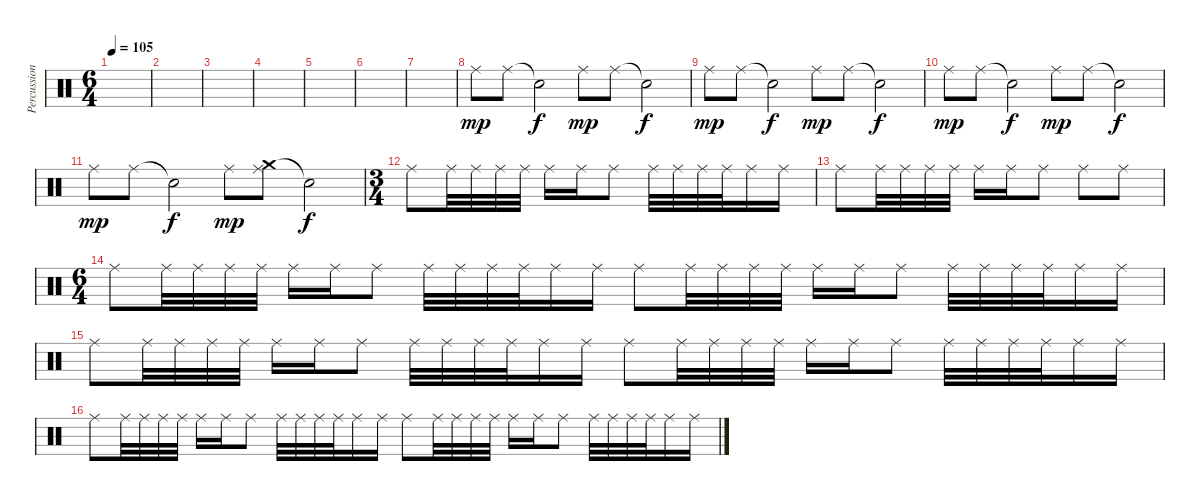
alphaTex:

\track ("Percussions" "Percussion") {instrument percussion}
\staff {score}
\articulation defaults
\ts (6 4)
\tempo 105
\clef neutral
\ks c
|
|
|
|
|
|
|
"Ride (middle)".8{dy mp} "Ride (middle)".8 "Snare (hit)"{t}.2{dy f} "Ride (middle)".8{dy mp} "Ride (middle)".8 "Snare (hit)"{t}.2{dy f} |
"Ride (middle)".8{dy mp} "Ride (middle)".8 "Snare (hit)"{t}.2{dy f} "Ride (middle)".8{dy mp} "Ride (middle)".8 "Snare (hit)"{t}.2{dy f} |
"Ride (middle)".8{dy mp} "Ride (middle)".8 "Snare (hit)"{t}.2{dy f} "Ride (middle)".8{dy mp} "Ride (middle)".8 "Snare (hit)"{t}.2{dy f} |
"Ride (middle)".8{dy mp} "Ride (middle)".8 "Snare (hit)"{t}.2{dy f} "Ride (middle)".8{dy mp} ("Crash medium (hit)" "Ride (middle)").8 "Snare (hit)"{t}.2{dy f} |
\ts (3 4)
"Ride (middle)".8 "Ride (middle)".32 "Ride (middle)".32 "Ride (middle)".32 "Ride (middle)".32 "Ride (middle)".16 "Ride (middle)".16 "Ride (middle)".8 "Ride (middle)".32 "Ride (middle)".32 "Ride (middle)".32 "Ride (middle)".32 "Ride (middle)".16 "Ride (middle)".16 |
"Ride (middle)".8 "Ride (middle)".32 "Ride (middle)".32 "Ride (middle)".32 "Ride (middle)".32 "Ride (middle)".16 "Ride (middle)".16 "Ride (middle)".8 "Ride (middle)".8 "Ride (middle)".8 |
\ts (6 4)
"Ride (middle)".8 "Ride (middle)".32 "Ride (middle)".32 "Ride (middle)".32 "Ride (middle)".32 "Ride (middle)".16 "Ride (middle)".16 "Ride (middle)".8 "Ride (middle)".32 "Ride (middle)".32 "Ride (middle)".32 "Ride (middle)".32 "Ride (middle)".16 "Ride (middle)".16 "Ride (middle)".8 "Ride (middle)".32 "Ride (middle)".32 "Ride (middle)".32 "Ride (middle)".32 "Ride (middle)".16 "Ride (middle)".16 "Ride (middle)".8 "Ride (middle)".32 "Ride (middle)".32 "Ride (middle)".32 "Ride (middle)".32 "Ride (middle)".16 "Ride (middle)".16 |
"Ride (middle)".8 "Ride (middle)".32 "Ride (middle)".32 "Ride (middle)".32 "Ride (middle)".32 "Ride (middle)".16 "Ride (middle)".16 "Ride (middle)".8 "Ride (middle)".32 "Ride (middle)".32 "Ride (middle)".32 "Ride (middle)".32 "Ride (middle)".16 "Ride (middle)".16 "Ride (middle)".8 "Ride (middle)".32 "Ride (middle)".32 "Ride (middle)".32 "Ride (middle)".32 "Ride (middle)".16 "Ride (middle)".16 "Ride (middle)".8 "Ride (middle)".32 "Ride (middle)".32 "Ride (middle)".32 "Ride (middle)".32 "Ride (middle)".16 "Ride (middle)".16 |
"Ride (middle)".8 "Ride (middle)".32 "Ride (middle)".32 "Ride (middle)".32 "Ride (middle)".32 "Ride (middle)".16 "Ride (middle)".16 "Ride (middle)".8 "Ride (middle)".32 "Ride (middle)".32 "Ride (middle)".32 "Ride (middle)".32 "Ride (middle)".16 "Ride (middle)".16 "Ride (middle)".8 "Ride (middle)".32 "Ride (middle)".32 "Ride (middle)".32 "Ride (middle)".32 "Ride (middle)".16 "Ride (middle)".16 "Ride (middle)".8 "Ride (middle)".32 "Ride (middle)".32 "Ride (middle)".32 "Ride (middle)".32 "Ride (middle)".16 "Ride (middle)".16
